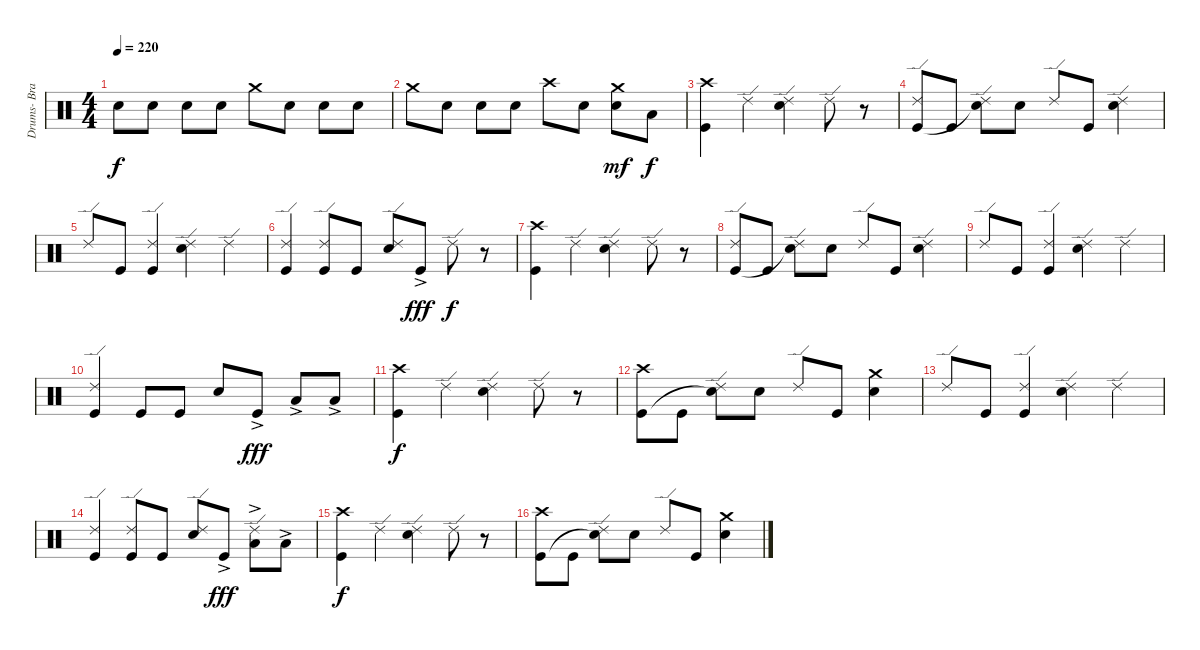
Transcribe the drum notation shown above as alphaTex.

\track ("Drums- Branden Steineckert" "Drums- Bra") {instrument percussion}
\staff {score}
\articulation defaults
\ts (4 4)
\tempo 220
\clef neutral
\ks c "Snare (hit) 2".8{dy f} "Snare (hit) 2".8 "Snare (hit) 2".8 "Snare (hit) 2".8 "Crash medium (hit)".8 "Snare (hit) 2".8 "Snare (hit) 2".8 "Snare (hit) 2".8
|
"Crash medium (hit)".8 "Snare (hit) 2".8 "Snare (hit) 2".8 "Snare (hit) 2".8 "Crash high (hit)".8 "Snare (hit) 2".8 ("Crash medium (hit)" "Snare (hit) 2").8{dy mf} "Low Tom (hit)".8{dy f} |
("Crash high (hit)" "Kick (hit)").4 "Ride (edge) 2".4 ("Ride (edge) 2" "Snare (hit) 2").4 "Ride (edge) 2".8 r.8 |
("Ride (edge) 2" "Kick (hit)").8 "Kick (hit)".8 ("Ride (edge) 2" "Snare (hit)"{t}).8 "Snare (hit) 2".8 "Ride (edge) 2".8 "Kick (hit)".8 ("Ride (edge) 2" "Snare (hit) 2").4 |
"Ride (edge) 2".8 "Kick (hit)".8 ("Ride (edge) 2" "Kick (hit)").4 ("Ride (edge) 2" "Snare (hit) 2").4 "Ride (edge) 2".4 |
("Ride (edge) 2" "Kick (hit)").4 ("Ride (edge) 2" "Kick (hit)").8 "Kick (hit)".8 ("Ride (edge) 2" "Snare (hit) 2").8 "Kick (hit)"{ac}.8{dy fff} "Ride (edge) 2".8{dy f} r.8 |
("Crash high (hit)" "Kick (hit)").4 "Ride (edge) 2".4 ("Ride (edge) 2" "Snare (hit) 2").4 "Ride (edge) 2".8 r.8 |
("Ride (edge) 2" "Kick (hit)").8 "Kick (hit)".8 ("Ride (edge) 2" "Snare (hit)"{t}).8 "Snare (hit) 2".8 "Ride (edge) 2".8 "Kick (hit)".8 ("Ride (edge) 2" "Snare (hit) 2").4 |
"Ride (edge) 2".8 "Kick (hit)".8 ("Ride (edge) 2" "Kick (hit)").4 ("Ride (edge) 2" "Snare (hit) 2").4 "Ride (edge) 2".4 |
("Ride (edge) 2" "Kick (hit)").4 "Kick (hit)".8 "Kick (hit)".8 "Snare (hit) 2".8 "Kick (hit)"{ac}.8{dy fff} "Low Tom (hit)"{ac}.8 "Low Floor Tom (hit)"{ac}.8 |
("Crash high (hit)" "Kick (hit)").4{dy f} "Ride (edge) 2".4 ("Ride (edge) 2" "Snare (hit) 2").4 "Ride (edge) 2".8 r.8 |
("Crash high (hit)" "Kick (hit)").8 "Kick (hit)".8 ("Ride (edge) 2" "Snare (hit)"{t}).8 "Snare (hit) 2".8 "Ride (edge) 2".8 "Kick (hit)".8 ("Crash medium (hit)" "Snare (hit) 2").4 |
"Ride (edge) 2".8 "Kick (hit)".8 ("Ride (edge) 2" "Kick (hit)").4 ("Ride (edge) 2" "Snare (hit) 2").4 "Ride (edge) 2".4 |
("Ride (edge) 2" "Kick (hit)").4 ("Ride (edge) 2" "Kick (hit)").8 "Kick (hit)".8 ("Ride (edge) 2" "Snare (hit) 2").8 "Kick (hit)"{ac}.8{dy fff} ("Ride (edge) 2" "Low Tom (hit)"{ac}).8 "Low Floor Tom (hit)"{ac}.8 |
("Crash high (hit)" "Kick (hit)").4{dy f} "Ride (edge) 2".4 ("Ride (edge) 2" "Snare (hit) 2").4 "Ride (edge) 2".8 r.8 |
("Crash high (hit)" "Kick (hit)").8 "Kick (hit)".8 ("Ride (edge) 2" "Snare (hit)"{t}).8 "Snare (hit) 2".8 "Ride (edge) 2".8 "Kick (hit)".8 ("Crash medium (hit)" "Snare (hit) 2").4
